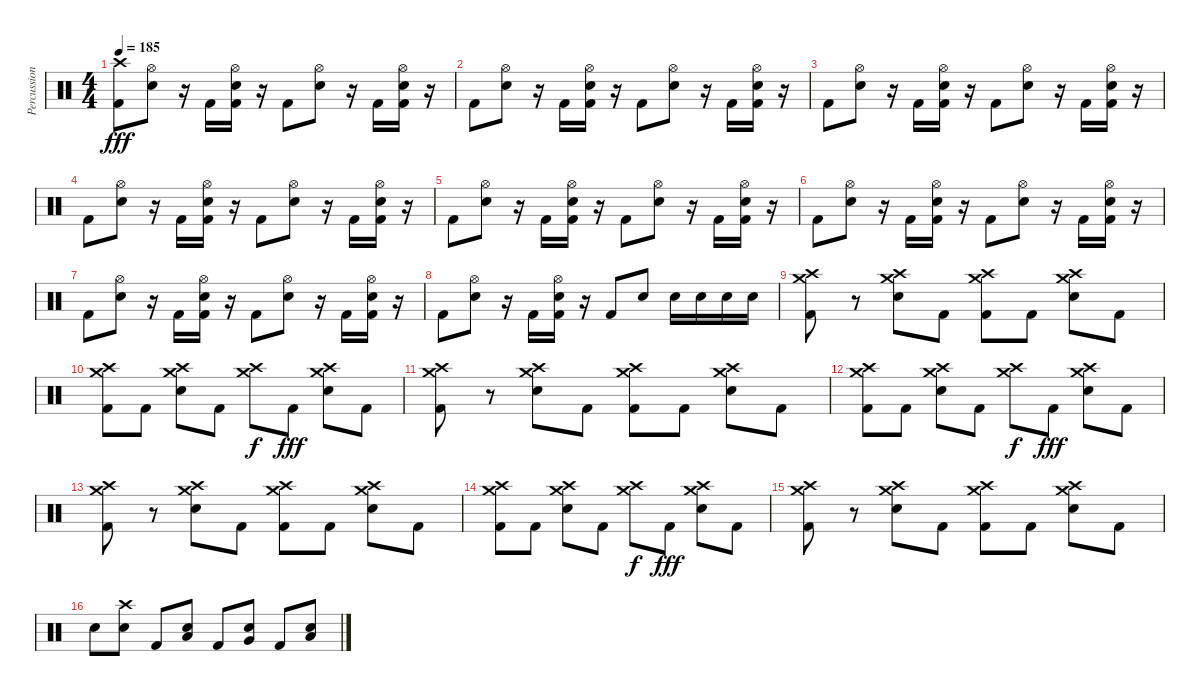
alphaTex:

\track ("Percussion" "Percussion") {instrument percussion}
\staff {score}
\articulation defaults
\ts (4 4)
\tempo 185
\clef neutral
\ks c
("Kick (hit) 2" "Crash high (hit)").8{dy fff} ("Electric Snare (hit)" "Hi-Hat (open)").8 r.16 "Kick (hit) 2".16 ("Kick (hit) 2" "Electric Snare (hit)" "Hi-Hat (open)").16 r.16 "Kick (hit) 2".8 ("Electric Snare (hit)" "Hi-Hat (open)").8 r.16 "Kick (hit) 2".16 ("Kick (hit) 2" "Electric Snare (hit)" "Hi-Hat (open)").16 r.16 |
"Kick (hit) 2".8 ("Electric Snare (hit)" "Hi-Hat (open)").8 r.16 "Kick (hit) 2".16 ("Kick (hit) 2" "Electric Snare (hit)" "Hi-Hat (open)").16 r.16 "Kick (hit) 2".8 ("Electric Snare (hit)" "Hi-Hat (open)").8 r.16 "Kick (hit) 2".16 ("Kick (hit) 2" "Electric Snare (hit)" "Hi-Hat (open)").16 r.16 |
"Kick (hit) 2".8 ("Electric Snare (hit)" "Hi-Hat (open)").8 r.16 "Kick (hit) 2".16 ("Kick (hit) 2" "Electric Snare (hit)" "Hi-Hat (open)").16 r.16 "Kick (hit) 2".8 ("Electric Snare (hit)" "Hi-Hat (open)").8 r.16 "Kick (hit) 2".16 ("Kick (hit) 2" "Electric Snare (hit)" "Hi-Hat (open)").16 r.16 |
"Kick (hit) 2".8 ("Electric Snare (hit)" "Hi-Hat (open)").8 r.16 "Kick (hit) 2".16 ("Kick (hit) 2" "Electric Snare (hit)" "Hi-Hat (open)").16 r.16 "Kick (hit) 2".8 ("Electric Snare (hit)" "Hi-Hat (open)").8 r.16 "Kick (hit) 2".16 ("Kick (hit) 2" "Electric Snare (hit)" "Hi-Hat (open)").16 r.16 |
"Kick (hit) 2".8 ("Electric Snare (hit)" "Hi-Hat (open)").8 r.16 "Kick (hit) 2".16 ("Kick (hit) 2" "Electric Snare (hit)" "Hi-Hat (open)").16 r.16 "Kick (hit) 2".8 ("Electric Snare (hit)" "Hi-Hat (open)").8 r.16 "Kick (hit) 2".16 ("Kick (hit) 2" "Electric Snare (hit)" "Hi-Hat (open)").16 r.16 |
"Kick (hit) 2".8 ("Electric Snare (hit)" "Hi-Hat (open)").8 r.16 "Kick (hit) 2".16 ("Kick (hit) 2" "Electric Snare (hit)" "Hi-Hat (open)").16 r.16 "Kick (hit) 2".8 ("Electric Snare (hit)" "Hi-Hat (open)").8 r.16 "Kick (hit) 2".16 ("Kick (hit) 2" "Electric Snare (hit)" "Hi-Hat (open)").16 r.16 |
"Kick (hit) 2".8 ("Electric Snare (hit)" "Hi-Hat (open)").8 r.16 "Kick (hit) 2".16 ("Kick (hit) 2" "Electric Snare (hit)" "Hi-Hat (open)").16 r.16 "Kick (hit) 2".8 ("Electric Snare (hit)" "Hi-Hat (open)").8 r.16 "Kick (hit) 2".16 ("Kick (hit) 2" "Electric Snare (hit)" "Hi-Hat (open)").16 r.16 |
"Kick (hit) 2".8 ("Electric Snare (hit)" "Hi-Hat (open)").8 r.16 "Kick (hit) 2".16 ("Kick (hit) 2" "Electric Snare (hit)" "Hi-Hat (open)").16 r.16 "Kick (hit) 2".8 "Electric Snare (hit)".8 "Electric Snare (hit)".16 "Electric Snare (hit)".16 "Electric Snare (hit)".16 "Electric Snare (hit)".16 |
("Kick (hit) 2" "Crash high (hit)" "Crash medium (hit)").8 r.8 ("Electric Snare (hit)" "Crash medium (hit)" "Crash high (hit)").8 "Kick (hit) 2".8 ("Kick (hit) 2" "Crash medium (hit)" "Crash high (hit)").8 "Kick (hit) 2".8 ("Electric Snare (hit)" "Crash medium (hit)" "Crash high (hit)").8 "Kick (hit) 2".8 |
("Kick (hit) 2" "Crash medium (hit)" "Crash high (hit)").8 "Kick (hit) 2".8 ("Electric Snare (hit)" "Crash medium (hit)" "Crash high (hit)").8 "Kick (hit) 2".8 ("Crash medium (hit)" "Crash high (hit)").8{dy f} "Kick (hit) 2".8{dy fff} ("Electric Snare (hit)" "Crash medium (hit)" "Crash high (hit)").8 "Kick (hit) 2".8 |
("Kick (hit) 2" "Crash medium (hit)" "Crash high (hit)").8 r.8 ("Electric Snare (hit)" "Crash medium (hit)" "Crash high (hit)").8 "Kick (hit) 2".8 ("Kick (hit) 2" "Crash medium (hit)" "Crash high (hit)").8 "Kick (hit) 2".8 ("Electric Snare (hit)" "Crash medium (hit)" "Crash high (hit)").8 "Kick (hit) 2".8 |
("Kick (hit) 2" "Crash medium (hit)" "Crash high (hit)").8 "Kick (hit) 2".8 ("Electric Snare (hit)" "Crash medium (hit)" "Crash high (hit)").8 "Kick (hit) 2".8 ("Crash medium (hit)" "Crash high (hit)").8{dy f} "Kick (hit) 2".8{dy fff} ("Electric Snare (hit)" "Crash medium (hit)" "Crash high (hit)").8 "Kick (hit) 2".8 |
("Kick (hit) 2" "Crash medium (hit)" "Crash high (hit)").8 r.8 ("Electric Snare (hit)" "Crash medium (hit)" "Crash high (hit)").8 "Kick (hit) 2".8 ("Kick (hit) 2" "Crash medium (hit)" "Crash high (hit)").8 "Kick (hit) 2".8 ("Electric Snare (hit)" "Crash medium (hit)" "Crash high (hit)").8 "Kick (hit) 2".8 |
("Kick (hit) 2" "Crash medium (hit)" "Crash high (hit)").8 "Kick (hit) 2".8 ("Electric Snare (hit)" "Crash medium (hit)" "Crash high (hit)").8 "Kick (hit) 2".8 ("Crash medium (hit)" "Crash high (hit)").8{dy f} "Kick (hit) 2".8{dy fff} ("Electric Snare (hit)" "Crash medium (hit)" "Crash high (hit)").8 "Kick (hit) 2".8 |
("Kick (hit) 2" "Crash medium (hit)" "Crash high (hit)").8 r.8 ("Electric Snare (hit)" "Crash medium (hit)" "Crash high (hit)").8 "Kick (hit) 2".8 ("Kick (hit) 2" "Crash medium (hit)" "Crash high (hit)").8 "Kick (hit) 2".8 ("Electric Snare (hit)" "Crash medium (hit)" "Crash high (hit)").8 "Kick (hit) 2".8 |
"Electric Snare (hit)".8 ("Electric Snare (hit)" "Crash high (hit)").8 "Kick (hit) 2".8 ("Electric Snare (hit)" "Low Tom (hit)").8 "Kick (hit) 2".8 ("Electric Snare (hit)" "Very Low Tom (hit)").8 "Kick (hit) 2".8 ("Electric Snare (hit)" "Low Floor Tom (hit)").8
